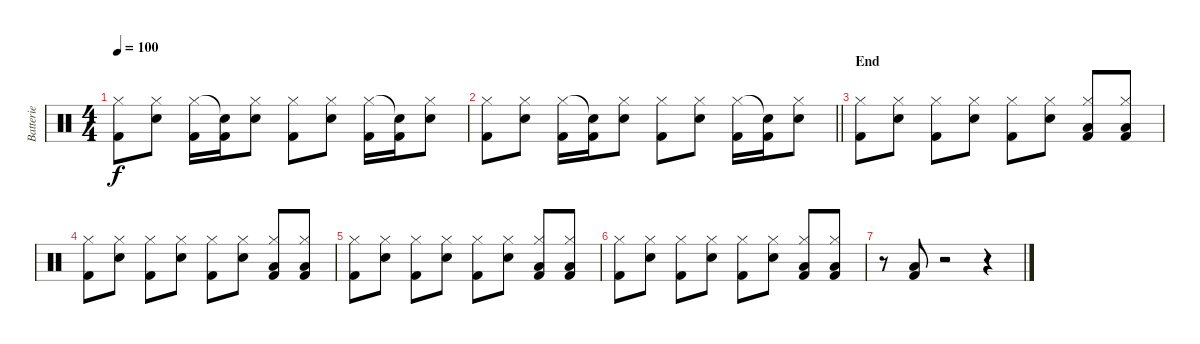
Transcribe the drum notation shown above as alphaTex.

\track ("Batterie" "Batterie") {instrument percussion}
\staff {score}
\articulation defaults
\ts (4 4)
\tempo 100
\clef neutral
\ks c
("Kick (hit) 2" "Hi-Hat (closed)").8{dy f} ("Electric Snare (hit)" "Hi-Hat (closed)").8 ("Kick (hit) 2" "Hi-Hat (closed)").16 ("Kick (hit) 2" "Snare (hit)"{t}).16 ("Electric Snare (hit)" "Hi-Hat (closed)").8 ("Kick (hit) 2" "Hi-Hat (closed)").8 ("Electric Snare (hit)" "Hi-Hat (closed)").8 ("Kick (hit) 2" "Hi-Hat (closed)").16 ("Kick (hit) 2" "Snare (hit)"{t}).16 ("Electric Snare (hit)" "Hi-Hat (closed)").8 |
\barLineRight lightlight
("Kick (hit) 2" "Hi-Hat (closed)").8 ("Electric Snare (hit)" "Hi-Hat (closed)").8 ("Kick (hit) 2" "Hi-Hat (closed)").16 ("Kick (hit) 2" "Snare (hit)"{t}).16 ("Electric Snare (hit)" "Hi-Hat (closed)").8 ("Kick (hit) 2" "Hi-Hat (closed)").8 ("Electric Snare (hit)" "Hi-Hat (closed)").8 ("Kick (hit) 2" "Hi-Hat (closed)").16 ("Kick (hit) 2" "Snare (hit)"{t}).16 ("Electric Snare (hit)" "Hi-Hat (closed)").8 |
\section ("" "End")
("Kick (hit) 2" "Hi-Hat (closed)").8 ("Electric Snare (hit)" "Hi-Hat (closed)").8 ("Kick (hit) 2" "Hi-Hat (closed)").8 ("Electric Snare (hit)" "Hi-Hat (closed)").8 ("Kick (hit) 2" "Hi-Hat (closed)").8 ("Electric Snare (hit)" "Hi-Hat (closed)").8 ("Low Tom (hit)" "Kick (hit) 2" "Hi-Hat (closed)").8 ("Low Tom (hit)" "Kick (hit) 2" "Hi-Hat (closed)").8 |
("Kick (hit) 2" "Hi-Hat (closed)").8 ("Electric Snare (hit)" "Hi-Hat (closed)").8 ("Kick (hit) 2" "Hi-Hat (closed)").8 ("Electric Snare (hit)" "Hi-Hat (closed)").8 ("Kick (hit) 2" "Hi-Hat (closed)").8 ("Electric Snare (hit)" "Hi-Hat (closed)").8 ("Low Tom (hit)" "Kick (hit) 2" "Hi-Hat (closed)").8 ("Low Tom (hit)" "Kick (hit) 2" "Hi-Hat (closed)").8 |
("Kick (hit) 2" "Hi-Hat (closed)").8 ("Electric Snare (hit)" "Hi-Hat (closed)").8 ("Kick (hit) 2" "Hi-Hat (closed)").8 ("Electric Snare (hit)" "Hi-Hat (closed)").8 ("Kick (hit) 2" "Hi-Hat (closed)").8 ("Electric Snare (hit)" "Hi-Hat (closed)").8 ("Low Tom (hit)" "Kick (hit) 2" "Hi-Hat (closed)").8 ("Low Tom (hit)" "Kick (hit) 2" "Hi-Hat (closed)").8 |
("Kick (hit) 2" "Hi-Hat (closed)").8 ("Electric Snare (hit)" "Hi-Hat (closed)").8 ("Kick (hit) 2" "Hi-Hat (closed)").8 ("Electric Snare (hit)" "Hi-Hat (closed)").8 ("Kick (hit) 2" "Hi-Hat (closed)").8 ("Electric Snare (hit)" "Hi-Hat (closed)").8 ("Low Tom (hit)" "Kick (hit) 2" "Hi-Hat (closed)").8 ("Low Tom (hit)" "Kick (hit) 2" "Hi-Hat (closed)").8 |
r.8 ("Kick (hit) 2" "Low Tom (hit)").8 r.2 r.4
